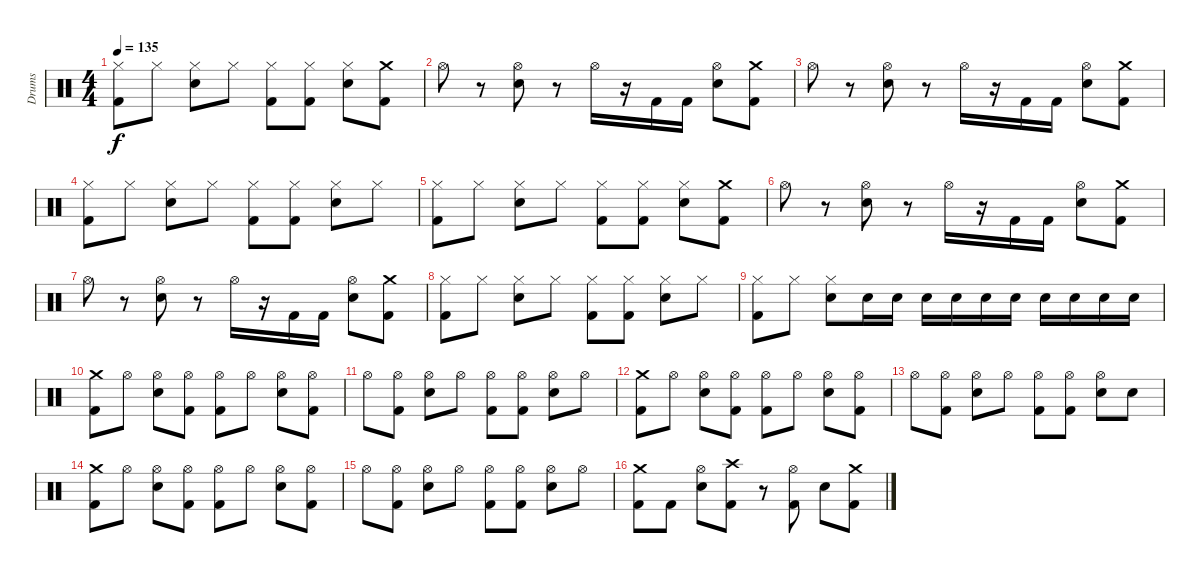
\track ("Drums" "Drums") {instrument percussion}
\staff {score}
\articulation defaults
\ts (4 4)
\tempo 135
\clef neutral
\ks c
("Hi-Hat (closed)" "Kick (hit) 2").8{dy f} "Hi-Hat (closed)".8 ("Hi-Hat (closed)" "Electric Snare (hit)").8 "Hi-Hat (closed)".8 ("Hi-Hat (closed)" "Kick (hit) 2").8 ("Hi-Hat (closed)" "Kick (hit) 2").8 ("Hi-Hat (closed)" "Electric Snare (hit)").8 ("Crash medium (hit)" "Kick (hit) 2").8 |
"Hi-Hat (open)".8 r.8 ("Hi-Hat (open)" "Electric Snare (hit)").8 r.8 "Hi-Hat (open)".16 r.16 "Kick (hit) 2".16 "Kick (hit) 2".16 ("Hi-Hat (open)" "Electric Snare (hit)").8 ("Crash medium (hit)" "Kick (hit) 2").8 |
"Hi-Hat (open)".8 r.8 ("Hi-Hat (open)" "Electric Snare (hit)").8 r.8 "Hi-Hat (open)".16 r.16 "Kick (hit) 2".16 "Kick (hit) 2".16 ("Hi-Hat (open)" "Electric Snare (hit)").8 ("Crash medium (hit)" "Kick (hit) 2").8 |
("Hi-Hat (closed)" "Kick (hit) 2").8 "Hi-Hat (closed)".8 ("Hi-Hat (closed)" "Electric Snare (hit)").8 "Hi-Hat (closed)".8 ("Hi-Hat (closed)" "Kick (hit) 2").8 ("Hi-Hat (closed)" "Kick (hit) 2").8 ("Hi-Hat (closed)" "Electric Snare (hit)").8 "Hi-Hat (closed)".8 |
("Hi-Hat (closed)" "Kick (hit) 2").8 "Hi-Hat (closed)".8 ("Hi-Hat (closed)" "Electric Snare (hit)").8 "Hi-Hat (closed)".8 ("Hi-Hat (closed)" "Kick (hit) 2").8 ("Hi-Hat (closed)" "Kick (hit) 2").8 ("Hi-Hat (closed)" "Electric Snare (hit)").8 ("Crash medium (hit)" "Kick (hit) 2").8 |
"Hi-Hat (open)".8 r.8 ("Hi-Hat (open)" "Electric Snare (hit)").8 r.8 "Hi-Hat (open)".16 r.16 "Kick (hit) 2".16 "Kick (hit) 2".16 ("Hi-Hat (open)" "Electric Snare (hit)").8 ("Crash medium (hit)" "Kick (hit) 2").8 |
"Hi-Hat (open)".8 r.8 ("Hi-Hat (open)" "Electric Snare (hit)").8 r.8 "Hi-Hat (open)".16 r.16 "Kick (hit) 2".16 "Kick (hit) 2".16 ("Hi-Hat (open)" "Electric Snare (hit)").8 ("Crash medium (hit)" "Kick (hit) 2").8 |
("Hi-Hat (closed)" "Kick (hit) 2").8 "Hi-Hat (closed)".8 ("Hi-Hat (closed)" "Electric Snare (hit)").8 "Hi-Hat (closed)".8 ("Hi-Hat (closed)" "Kick (hit) 2").8 ("Hi-Hat (closed)" "Kick (hit) 2").8 ("Hi-Hat (closed)" "Electric Snare (hit)").8 "Hi-Hat (closed)".8 |
("Hi-Hat (closed)" "Kick (hit) 2").8 "Hi-Hat (closed)".8 ("Hi-Hat (closed)" "Electric Snare (hit)").8 "Electric Snare (hit)".16 "Electric Snare (hit)".16 "Electric Snare (hit)".16 "Electric Snare (hit)".16 "Electric Snare (hit)".16 "Electric Snare (hit)".16 "Electric Snare (hit)".16 "Electric Snare (hit)".16 "Electric Snare (hit)".16 "Electric Snare (hit)".16 |
("Crash medium (hit)" "Kick (hit) 2").8 "Hi-Hat (open)".8 ("Hi-Hat (open)" "Electric Snare (hit)").8 ("Hi-Hat (open)" "Kick (hit) 2").8 ("Hi-Hat (open)" "Kick (hit) 2").8 "Hi-Hat (open)".8 ("Hi-Hat (open)" "Electric Snare (hit)").8 ("Hi-Hat (open)" "Kick (hit) 2").8 |
"Hi-Hat (open)".8 ("Hi-Hat (open)" "Kick (hit) 2").8 ("Hi-Hat (open)" "Electric Snare (hit)").8 "Hi-Hat (open)".8 ("Hi-Hat (open)" "Kick (hit) 2").8 ("Hi-Hat (open)" "Kick (hit) 2").8 ("Hi-Hat (open)" "Electric Snare (hit)").8 "Hi-Hat (open)".8 |
("Crash medium (hit)" "Kick (hit) 2").8 "Hi-Hat (open)".8 ("Hi-Hat (open)" "Electric Snare (hit)").8 ("Hi-Hat (open)" "Kick (hit) 2").8 ("Hi-Hat (open)" "Kick (hit) 2").8 "Hi-Hat (open)".8 ("Hi-Hat (open)" "Electric Snare (hit)").8 ("Hi-Hat (open)" "Kick (hit) 2").8 |
"Hi-Hat (open)".8 ("Hi-Hat (open)" "Kick (hit) 2").8 ("Hi-Hat (open)" "Electric Snare (hit)").8 "Hi-Hat (open)".8 ("Hi-Hat (open)" "Kick (hit) 2").8 ("Hi-Hat (open)" "Kick (hit) 2").8 ("Hi-Hat (open)" "Electric Snare (hit)").8 "Electric Snare (hit)".8 |
("Crash medium (hit)" "Kick (hit) 2").8 "Hi-Hat (open)".8 ("Hi-Hat (open)" "Electric Snare (hit)").8 ("Hi-Hat (open)" "Kick (hit) 2").8 ("Hi-Hat (open)" "Kick (hit) 2").8 "Hi-Hat (open)".8 ("Hi-Hat (open)" "Electric Snare (hit)").8 ("Hi-Hat (open)" "Kick (hit) 2").8 |
"Hi-Hat (open)".8 ("Hi-Hat (open)" "Kick (hit) 2").8 ("Hi-Hat (open)" "Electric Snare (hit)").8 "Hi-Hat (open)".8 ("Hi-Hat (open)" "Kick (hit) 2").8 ("Hi-Hat (open)" "Kick (hit) 2").8 ("Hi-Hat (open)" "Electric Snare (hit)").8 "Hi-Hat (open)".8 |
("Crash medium (hit)" "Kick (hit) 2").8 "Kick (hit) 2".8 ("Hi-Hat (open)" "Electric Snare (hit)").8 ("Crash high (hit)" "Kick (hit) 2").8 r.8 ("Hi-Hat (open)" "Kick (hit) 2").8 "Electric Snare (hit)".8 ("Crash medium (hit)" "Kick (hit) 2").8
